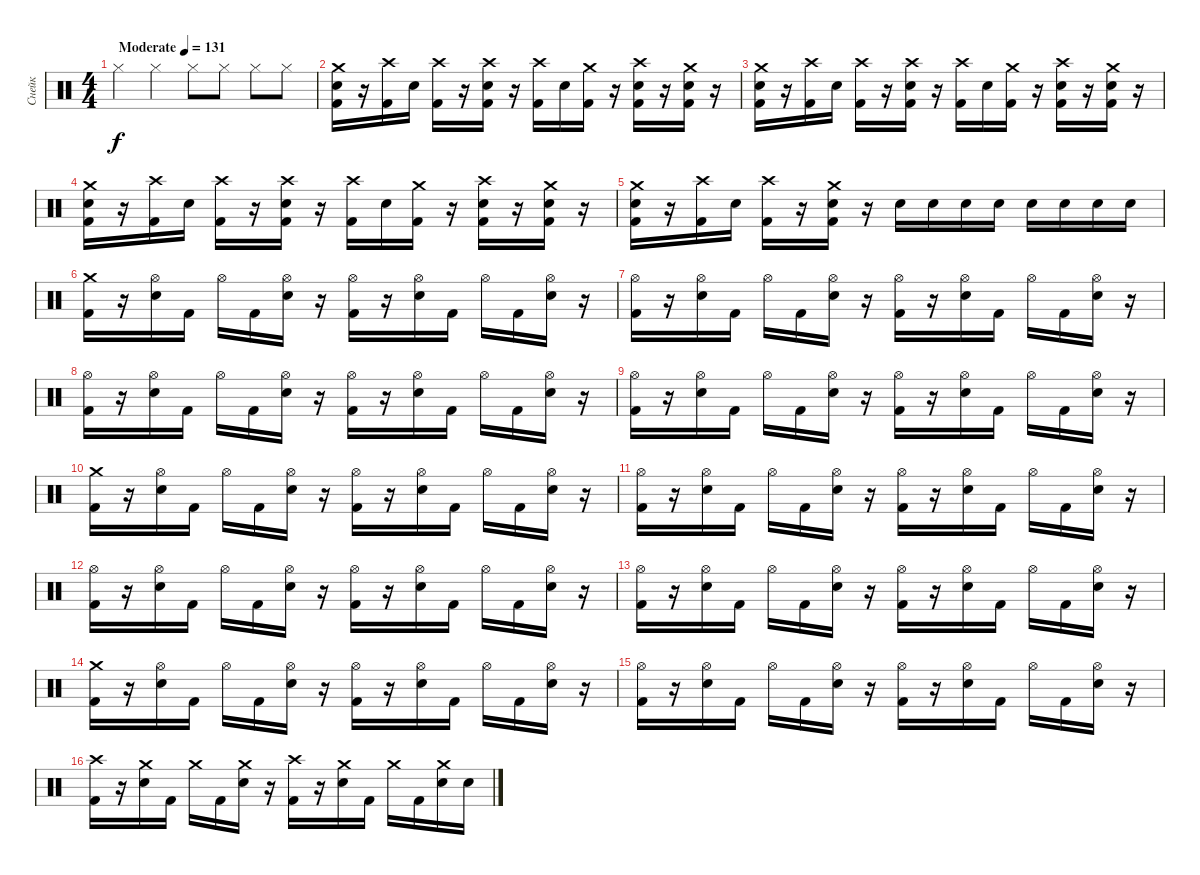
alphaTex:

\track ("Снейк" "Снейк") {instrument percussion}
\staff {score}
\articulation defaults
\ts (4 4)
\tempo (131 "Moderate")
\clef neutral
\ks c "Hi-Hat (closed)".4{dy f} "Hi-Hat (closed)".4 "Hi-Hat (closed)".8 "Hi-Hat (closed)".8 "Hi-Hat (closed)".8 "Hi-Hat (closed)".8
|
("Kick (hit) 2" "Electric Snare (hit)" "Crash medium (hit)").16 r.16 ("Kick (hit) 2" "Crash high (hit)").16 "Electric Snare (hit)".16 ("Kick (hit) 2" "Crash high (hit)").16 r.16 ("Kick (hit) 2" "Electric Snare (hit)" "Crash high (hit)").16 r.16 ("Kick (hit) 2" "Crash high (hit)").16 "Electric Snare (hit)".16 ("Kick (hit) 2" "Crash medium (hit)").16 r.16 ("Kick (hit) 2" "Electric Snare (hit)" "Crash high (hit)").16 r.16 ("Kick (hit) 2" "Electric Snare (hit)" "Crash medium (hit)").16 r.16 |
("Kick (hit) 2" "Electric Snare (hit)" "Crash medium (hit)").16 r.16 ("Kick (hit) 2" "Crash high (hit)").16 "Electric Snare (hit)".16 ("Kick (hit) 2" "Crash high (hit)").16 r.16 ("Kick (hit) 2" "Electric Snare (hit)" "Crash high (hit)").16 r.16 ("Kick (hit) 2" "Crash high (hit)").16 "Electric Snare (hit)".16 ("Kick (hit) 2" "Crash medium (hit)").16 r.16 ("Kick (hit) 2" "Electric Snare (hit)" "Crash high (hit)").16 r.16 ("Kick (hit) 2" "Electric Snare (hit)" "Crash medium (hit)").16 r.16 |
("Kick (hit) 2" "Electric Snare (hit)" "Crash medium (hit)").16 r.16 ("Kick (hit) 2" "Crash high (hit)").16 "Electric Snare (hit)".16 ("Kick (hit) 2" "Crash high (hit)").16 r.16 ("Kick (hit) 2" "Electric Snare (hit)" "Crash high (hit)").16 r.16 ("Kick (hit) 2" "Crash high (hit)").16 "Electric Snare (hit)".16 ("Kick (hit) 2" "Crash medium (hit)").16 r.16 ("Kick (hit) 2" "Electric Snare (hit)" "Crash high (hit)").16 r.16 ("Kick (hit) 2" "Electric Snare (hit)" "Crash medium (hit)").16 r.16 |
("Kick (hit) 2" "Electric Snare (hit)" "Crash medium (hit)").16 r.16 ("Kick (hit) 2" "Crash high (hit)").16 "Electric Snare (hit)".16 ("Kick (hit) 2" "Crash high (hit)").16 r.16 ("Kick (hit) 2" "Electric Snare (hit)" "Crash medium (hit)").16 r.16 "Electric Snare (hit)".16 "Electric Snare (hit)".16 "Electric Snare (hit)".16 "Electric Snare (hit)".16 "Electric Snare (hit)".16 "Electric Snare (hit)".16 "Electric Snare (hit)".16 "Electric Snare (hit)".16 |
("Kick (hit) 2" "Crash medium (hit)").16 r.16 ("Electric Snare (hit)" "Hi-Hat (open)").16 "Kick (hit) 2".16 "Hi-Hat (open)".16 "Kick (hit) 2".16 ("Electric Snare (hit)" "Hi-Hat (open)").16 r.16 ("Kick (hit) 2" "Hi-Hat (open)").16 r.16 ("Electric Snare (hit)" "Hi-Hat (open)").16 "Kick (hit) 2".16 "Hi-Hat (open)".16 "Kick (hit) 2".16 ("Electric Snare (hit)" "Hi-Hat (open)").16 r.16 |
("Kick (hit) 2" "Hi-Hat (open)").16 r.16 ("Electric Snare (hit)" "Hi-Hat (open)").16 "Kick (hit) 2".16 "Hi-Hat (open)".16 "Kick (hit) 2".16 ("Electric Snare (hit)" "Hi-Hat (open)").16 r.16 ("Kick (hit) 2" "Hi-Hat (open)").16 r.16 ("Electric Snare (hit)" "Hi-Hat (open)").16 "Kick (hit) 2".16 "Hi-Hat (open)".16 "Kick (hit) 2".16 ("Electric Snare (hit)" "Hi-Hat (open)").16 r.16 |
("Kick (hit) 2" "Hi-Hat (open)").16 r.16 ("Electric Snare (hit)" "Hi-Hat (open)").16 "Kick (hit) 2".16 "Hi-Hat (open)".16 "Kick (hit) 2".16 ("Electric Snare (hit)" "Hi-Hat (open)").16 r.16 ("Kick (hit) 2" "Hi-Hat (open)").16 r.16 ("Electric Snare (hit)" "Hi-Hat (open)").16 "Kick (hit) 2".16 "Hi-Hat (open)".16 "Kick (hit) 2".16 ("Electric Snare (hit)" "Hi-Hat (open)").16 r.16 |
("Kick (hit) 2" "Hi-Hat (open)").16 r.16 ("Electric Snare (hit)" "Hi-Hat (open)").16 "Kick (hit) 2".16 "Hi-Hat (open)".16 "Kick (hit) 2".16 ("Electric Snare (hit)" "Hi-Hat (open)").16 r.16 ("Kick (hit) 2" "Hi-Hat (open)").16 r.16 ("Electric Snare (hit)" "Hi-Hat (open)").16 "Kick (hit) 2".16 "Hi-Hat (open)".16 "Kick (hit) 2".16 ("Electric Snare (hit)" "Hi-Hat (open)").16 r.16 |
("Kick (hit) 2" "Crash medium (hit)").16 r.16 ("Electric Snare (hit)" "Hi-Hat (open)").16 "Kick (hit) 2".16 "Hi-Hat (open)".16 "Kick (hit) 2".16 ("Electric Snare (hit)" "Hi-Hat (open)").16 r.16 ("Kick (hit) 2" "Hi-Hat (open)").16 r.16 ("Electric Snare (hit)" "Hi-Hat (open)").16 "Kick (hit) 2".16 "Hi-Hat (open)".16 "Kick (hit) 2".16 ("Electric Snare (hit)" "Hi-Hat (open)").16 r.16 |
("Kick (hit) 2" "Hi-Hat (open)").16 r.16 ("Electric Snare (hit)" "Hi-Hat (open)").16 "Kick (hit) 2".16 "Hi-Hat (open)".16 "Kick (hit) 2".16 ("Electric Snare (hit)" "Hi-Hat (open)").16 r.16 ("Kick (hit) 2" "Hi-Hat (open)").16 r.16 ("Electric Snare (hit)" "Hi-Hat (open)").16 "Kick (hit) 2".16 "Hi-Hat (open)".16 "Kick (hit) 2".16 ("Electric Snare (hit)" "Hi-Hat (open)").16 r.16 |
("Kick (hit) 2" "Hi-Hat (open)").16 r.16 ("Electric Snare (hit)" "Hi-Hat (open)").16 "Kick (hit) 2".16 "Hi-Hat (open)".16 "Kick (hit) 2".16 ("Electric Snare (hit)" "Hi-Hat (open)").16 r.16 ("Kick (hit) 2" "Hi-Hat (open)").16 r.16 ("Electric Snare (hit)" "Hi-Hat (open)").16 "Kick (hit) 2".16 "Hi-Hat (open)".16 "Kick (hit) 2".16 ("Electric Snare (hit)" "Hi-Hat (open)").16 r.16 |
("Kick (hit) 2" "Hi-Hat (open)").16 r.16 ("Electric Snare (hit)" "Hi-Hat (open)").16 "Kick (hit) 2".16 "Hi-Hat (open)".16 "Kick (hit) 2".16 ("Electric Snare (hit)" "Hi-Hat (open)").16 r.16 ("Kick (hit) 2" "Hi-Hat (open)").16 r.16 ("Electric Snare (hit)" "Hi-Hat (open)").16 "Kick (hit) 2".16 "Hi-Hat (open)".16 "Kick (hit) 2".16 ("Electric Snare (hit)" "Hi-Hat (open)").16 r.16 |
("Kick (hit) 2" "Crash medium (hit)").16 r.16 ("Electric Snare (hit)" "Hi-Hat (open)").16 "Kick (hit) 2".16 "Hi-Hat (open)".16 "Kick (hit) 2".16 ("Electric Snare (hit)" "Hi-Hat (open)").16 r.16 ("Kick (hit) 2" "Hi-Hat (open)").16 r.16 ("Electric Snare (hit)" "Hi-Hat (open)").16 "Kick (hit) 2".16 "Hi-Hat (open)".16 "Kick (hit) 2".16 ("Electric Snare (hit)" "Hi-Hat (open)").16 r.16 |
("Kick (hit) 2" "Hi-Hat (open)").16 r.16 ("Electric Snare (hit)" "Hi-Hat (open)").16 "Kick (hit) 2".16 "Hi-Hat (open)".16 "Kick (hit) 2".16 ("Electric Snare (hit)" "Hi-Hat (open)").16 r.16 ("Kick (hit) 2" "Hi-Hat (open)").16 r.16 ("Electric Snare (hit)" "Hi-Hat (open)").16 "Kick (hit) 2".16 "Hi-Hat (open)".16 "Kick (hit) 2".16 ("Electric Snare (hit)" "Hi-Hat (open)").16 r.16 |
("Kick (hit) 2" "Crash high (hit)").16 r.16 ("Electric Snare (hit)" "Crash medium (hit)").16 "Kick (hit) 2".16 "Crash medium (hit)".16 "Kick (hit) 2".16 ("Electric Snare (hit)" "Crash medium (hit)").16 r.16 ("Kick (hit) 2" "Crash high (hit)").16 r.16 ("Electric Snare (hit)" "Crash medium (hit)").16 "Kick (hit) 2".16 "Crash medium (hit)".16 "Kick (hit) 2".16 ("Electric Snare (hit)" "Crash medium (hit)").16 "Electric Snare (hit)".16
